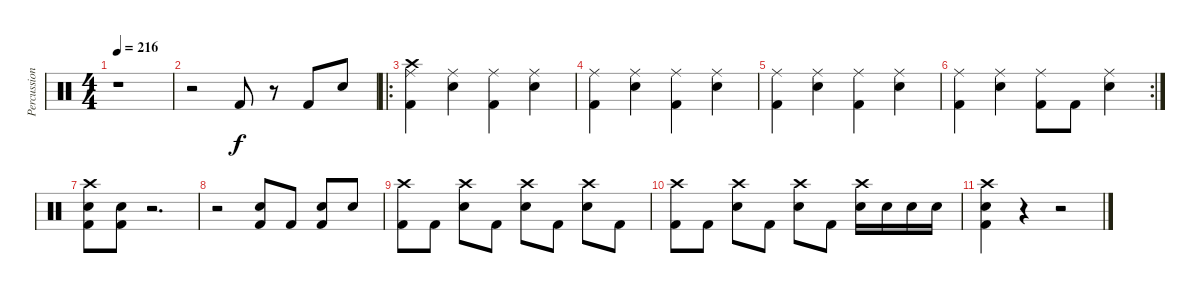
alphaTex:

\track ("Percussion" "Percussion") {instrument percussion}
\staff {score}
\articulation defaults
\ts (4 4)
\tempo 216
\clef neutral
\ks c
r.1{dy f} |
r.2 "Kick (hit) 2".8 r.8 "Kick (hit) 2".8 "Snare (hit) 2".8 |
\ro
("Crash high (hit)" "Ride (middle)" "Kick (hit) 2").4 ("Ride (middle)" "Snare (hit) 2").4 ("Ride (middle)" "Kick (hit) 2").4 ("Ride (middle)" "Snare (hit) 2").4 |
("Ride (middle)" "Kick (hit) 2").4 ("Ride (middle)" "Snare (hit) 2").4 ("Ride (middle)" "Kick (hit) 2").4 ("Ride (middle)" "Snare (hit) 2").4 |
("Ride (middle)" "Kick (hit) 2").4 ("Ride (middle)" "Snare (hit) 2").4 ("Ride (middle)" "Kick (hit) 2").4 ("Ride (middle)" "Snare (hit) 2").4 |
\rc 2
("Ride (middle)" "Kick (hit) 2").4 ("Ride (middle)" "Snare (hit) 2").4 ("Ride (middle)" "Kick (hit) 2").8 "Kick (hit) 2".8 ("Ride (middle)" "Snare (hit) 2").4 |
("Crash high (hit)" "Kick (hit) 2" "Snare (hit) 2").8 ("Kick (hit) 2" "Snare (hit) 2").8 r.2{d} |
r.2 ("Kick (hit) 2" "Snare (hit) 2").8 "Kick (hit) 2".8 ("Kick (hit) 2" "Snare (hit) 2").8 "Snare (hit) 2".8 |
("Crash high (hit)" "Kick (hit) 2").8 "Kick (hit) 2".8 ("Crash high (hit)" "Snare (hit) 2").8 "Kick (hit) 2".8 ("Crash high (hit)" "Snare (hit) 2").8 "Kick (hit) 2".8 ("Crash high (hit)" "Snare (hit) 2").8 "Kick (hit) 2".8 |
("Crash high (hit)" "Kick (hit) 2").8 "Kick (hit) 2".8 ("Crash high (hit)" "Snare (hit) 2").8 "Kick (hit) 2".8 ("Crash high (hit)" "Snare (hit) 2").8 "Kick (hit) 2".8 ("Crash high (hit)" "Snare (hit) 2").16 "Snare (hit) 2".16 "Snare (hit) 2".16 "Snare (hit) 2".16 |
("Crash high (hit)" "Snare (hit) 2" "Kick (hit) 2").4 r.4 r.2
